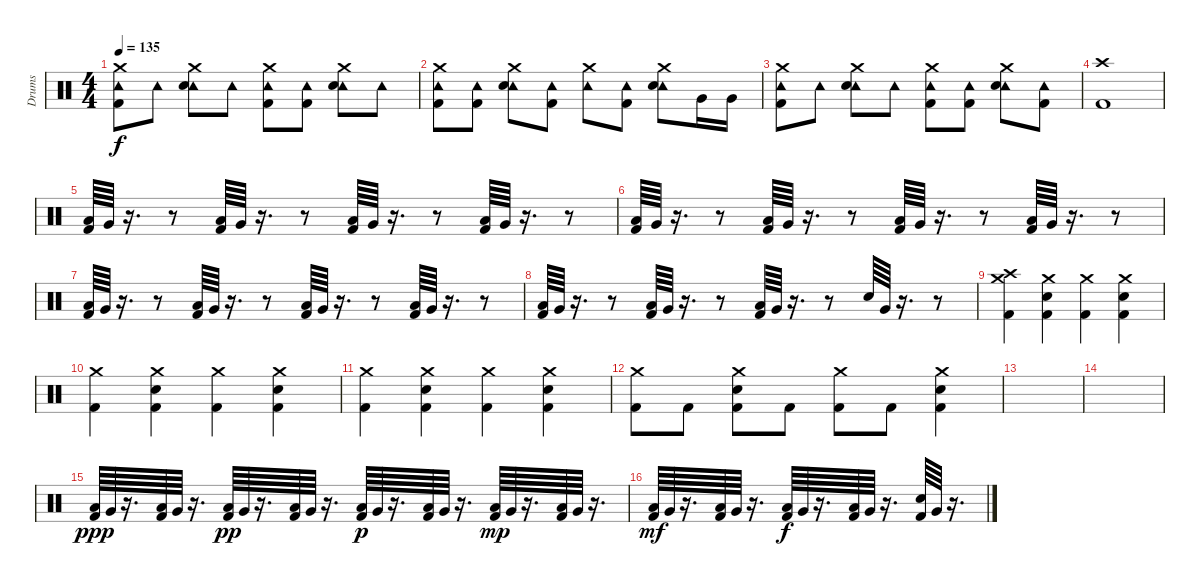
\track ("Drums" "Drums") {solo instrument percussion bank 34}
\staff {score}
\articulation defaults
\ts (4 4)
\tempo 135
\clef neutral
\ks c
("Crash medium (hit)" "Tambourine (hit)" "Kick (hit) 2").8{dy f} "Tambourine (hit)".8 ("Crash medium (hit)" "Tambourine (hit)" "Electric Snare (hit)").8 "Tambourine (hit)".8 ("Crash medium (hit)" "Tambourine (hit)" "Kick (hit) 2").8 ("Tambourine (hit)" "Kick (hit) 2").8 ("Crash medium (hit)" "Tambourine (hit)" "Electric Snare (hit)").8 "Tambourine (hit)".8 |
("Crash medium (hit)" "Tambourine (hit)" "Kick (hit) 2").8 ("Tambourine (hit)" "Kick (hit) 2").8 ("Crash medium (hit)" "Tambourine (hit)" "Electric Snare (hit)").8 ("Tambourine (hit)" "Kick (hit) 2").8 ("Crash medium (hit)" "Tambourine (hit)").8 ("Tambourine (hit)" "Kick (hit) 2").8 ("Crash medium (hit)" "Tambourine (hit)" "Electric Snare (hit)").8 "Very Low Tom (hit)".16 "Very Low Tom (hit)".16 |
("Crash medium (hit)" "Tambourine (hit)" "Kick (hit) 2").8 "Tambourine (hit)".8 ("Crash medium (hit)" "Tambourine (hit)" "Electric Snare (hit)").8 "Tambourine (hit)".8 ("Crash medium (hit)" "Tambourine (hit)" "Kick (hit) 2").8 ("Tambourine (hit)" "Kick (hit) 2").8 ("Crash medium (hit)" "Tambourine (hit)" "Electric Snare (hit)").8 ("Tambourine (hit)" "Kick (hit) 2").8 |
("Crash high (hit)" "Kick (hit) 2").1 |
("Low Tom (hit)" "Kick (hit) 2").64 "Very Low Tom (hit)".64 r.16{d} r.8 ("Low Tom (hit)" "Kick (hit) 2").64 "Very Low Tom (hit)".64 r.16{d} r.8 ("Low Tom (hit)" "Kick (hit) 2").64 "Very Low Tom (hit)".64 r.16{d} r.8 ("Low Tom (hit)" "Kick (hit) 2").64 "Very Low Tom (hit)".64 r.16{d} r.8 |
("Low Tom (hit)" "Kick (hit) 2").64 "Very Low Tom (hit)".64 r.16{d} r.8 ("Low Tom (hit)" "Kick (hit) 2").64 "Very Low Tom (hit)".64 r.16{d} r.8 ("Low Tom (hit)" "Kick (hit) 2").64 "Very Low Tom (hit)".64 r.16{d} r.8 ("Low Tom (hit)" "Kick (hit) 2").64 "Very Low Tom (hit)".64 r.16{d} r.8 |
("Low Tom (hit)" "Kick (hit) 2").64 "Very Low Tom (hit)".64 r.16{d} r.8 ("Low Tom (hit)" "Kick (hit) 2").64 "Very Low Tom (hit)".64 r.16{d} r.8 ("Low Tom (hit)" "Kick (hit) 2").64 "Very Low Tom (hit)".64 r.16{d} r.8 ("Low Tom (hit)" "Kick (hit) 2").64 "Very Low Tom (hit)".64 r.16{d} r.8 |
("Low Tom (hit)" "Kick (hit) 2").64 "Very Low Tom (hit)".64 r.16{d} r.8 ("Low Tom (hit)" "Kick (hit) 2").64 "Very Low Tom (hit)".64 r.16{d} r.8 ("Low Tom (hit)" "Kick (hit) 2").64 "Very Low Tom (hit)".64 r.16{d} r.8 "Electric Snare (hit)".64 "Very Low Tom (hit)".64 r.16{d} r.8 |
("Crash high (hit)" "Crash medium (hit)" "Kick (hit) 2").4 ("Crash medium (hit)" "Electric Snare (hit)" "Kick (hit) 2").4 ("Crash medium (hit)" "Kick (hit) 2").4 ("Crash medium (hit)" "Electric Snare (hit)" "Kick (hit) 2").4 |
("Crash medium (hit)" "Kick (hit) 2").4 ("Crash medium (hit)" "Electric Snare (hit)" "Kick (hit) 2").4 ("Crash medium (hit)" "Kick (hit) 2").4 ("Crash medium (hit)" "Electric Snare (hit)" "Kick (hit) 2").4 |
("Crash medium (hit)" "Kick (hit) 2").4 ("Crash medium (hit)" "Electric Snare (hit)" "Kick (hit) 2").4 ("Crash medium (hit)" "Kick (hit) 2").4 ("Crash medium (hit)" "Electric Snare (hit)" "Kick (hit) 2").4 |
("Crash medium (hit)" "Kick (hit) 2").8 "Kick (hit) 2".8 ("Crash medium (hit)" "Electric Snare (hit)" "Kick (hit) 2").8 "Kick (hit) 2".8 ("Crash medium (hit)" "Kick (hit) 2").8 "Kick (hit) 2".8 ("Crash medium (hit)" "Electric Snare (hit)" "Kick (hit) 2").4 |
|
|
("Low Tom (hit)" "Kick (hit) 2").64{dy ppp} "Very Low Tom (hit)".64 r.16{d} ("Low Tom (hit)" "Kick (hit) 2").64 "Very Low Tom (hit)".64 r.16{d} ("Low Tom (hit)" "Kick (hit) 2").64{dy pp} "Very Low Tom (hit)".64 r.16{d} ("Low Tom (hit)" "Kick (hit) 2").64 "Very Low Tom (hit)".64 r.16{d} ("Low Tom (hit)" "Kick (hit) 2").64{dy p} "Very Low Tom (hit)".64 r.16{d} ("Low Tom (hit)" "Kick (hit) 2").64 "Very Low Tom (hit)".64 r.16{d} ("Low Tom (hit)" "Kick (hit) 2").64{dy mp} "Very Low Tom (hit)".64 r.16{d} ("Low Tom (hit)" "Kick (hit) 2").64 "Very Low Tom (hit)".64 r.16{d} |
("Low Tom (hit)" "Kick (hit) 2").64{dy mf} "Very Low Tom (hit)".64 r.16{d} ("Low Tom (hit)" "Kick (hit) 2").64 "Very Low Tom (hit)".64 r.16{d} ("Low Tom (hit)" "Kick (hit) 2").64{dy f} "Very Low Tom (hit)".64 r.16{d} ("Low Tom (hit)" "Kick (hit) 2").64 "Very Low Tom (hit)".64 r.16{d} ("Electric Snare (hit)" "Kick (hit) 2").64 "Very Low Tom (hit)".64 r.16{d}
